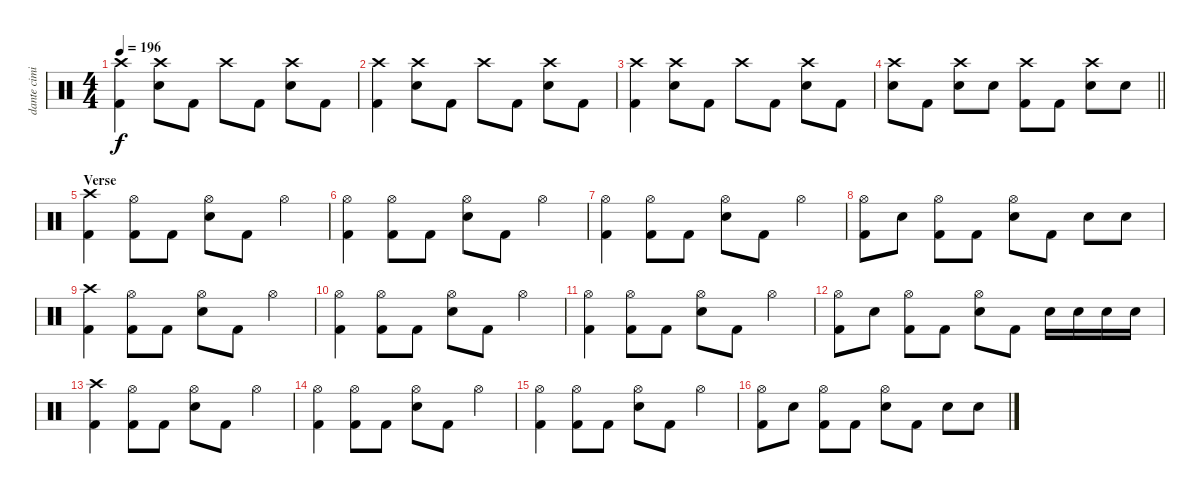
\track ("dante cimino" "dante cimi") {instrument percussion}
\staff {score}
\articulation defaults
\ts (4 4)
\tempo 196
\clef neutral
\ks c
("Crash high (hit)" "Kick (hit) 2").4{dy f} ("Crash high (hit)" "Electric Snare (hit)").8 "Kick (hit) 2".8 "Crash high (hit)".8 "Kick (hit) 2".8 ("Crash high (hit)" "Electric Snare (hit)").8 "Kick (hit) 2".8 |
("Crash high (hit)" "Kick (hit) 2").4 ("Crash high (hit)" "Electric Snare (hit)").8 "Kick (hit) 2".8 "Crash high (hit)".8 "Kick (hit) 2".8 ("Crash high (hit)" "Electric Snare (hit)").8 "Kick (hit) 2".8 |
("Crash high (hit)" "Kick (hit) 2").4 ("Crash high (hit)" "Electric Snare (hit)").8 "Kick (hit) 2".8 "Crash high (hit)".8 "Kick (hit) 2".8 ("Crash high (hit)" "Electric Snare (hit)").8 "Kick (hit) 2".8 |
\barLineRight lightlight
("Crash high (hit)" "Electric Snare (hit)").8 "Kick (hit) 2".8 ("Crash high (hit)" "Electric Snare (hit)").8 "Electric Snare (hit)".8 ("Crash high (hit)" "Kick (hit) 2").8 "Kick (hit) 2".8 ("Crash high (hit)" "Electric Snare (hit)").8 "Electric Snare (hit)".8 |
\section ("" "Verse")
("Crash high (hit)" "Kick (hit) 2").4 ("Hi-Hat (open)" "Kick (hit) 2").8 "Kick (hit) 2".8 ("Hi-Hat (open)" "Electric Snare (hit)").8 "Kick (hit) 2".8 "Hi-Hat (open)".4 |
("Hi-Hat (open)" "Kick (hit) 2").4 ("Hi-Hat (open)" "Kick (hit) 2").8 "Kick (hit) 2".8 ("Hi-Hat (open)" "Electric Snare (hit)").8 "Kick (hit) 2".8 "Hi-Hat (open)".4 |
("Hi-Hat (open)" "Kick (hit) 2").4 ("Hi-Hat (open)" "Kick (hit) 2").8 "Kick (hit) 2".8 ("Hi-Hat (open)" "Electric Snare (hit)").8 "Kick (hit) 2".8 "Hi-Hat (open)".4 |
("Hi-Hat (open)" "Kick (hit) 2").8 "Electric Snare (hit)".8 ("Hi-Hat (open)" "Kick (hit) 2").8 "Kick (hit) 2".8 ("Hi-Hat (open)" "Electric Snare (hit)").8 "Kick (hit) 2".8 "Electric Snare (hit)".8 "Electric Snare (hit)".8 |
("Crash high (hit)" "Kick (hit) 2").4 ("Hi-Hat (open)" "Kick (hit) 2").8 "Kick (hit) 2".8 ("Hi-Hat (open)" "Electric Snare (hit)").8 "Kick (hit) 2".8 "Hi-Hat (open)".4 |
("Hi-Hat (open)" "Kick (hit) 2").4 ("Hi-Hat (open)" "Kick (hit) 2").8 "Kick (hit) 2".8 ("Hi-Hat (open)" "Electric Snare (hit)").8 "Kick (hit) 2".8 "Hi-Hat (open)".4 |
("Hi-Hat (open)" "Kick (hit) 2").4 ("Hi-Hat (open)" "Kick (hit) 2").8 "Kick (hit) 2".8 ("Hi-Hat (open)" "Electric Snare (hit)").8 "Kick (hit) 2".8 "Hi-Hat (open)".4 |
("Hi-Hat (open)" "Kick (hit) 2").8 "Electric Snare (hit)".8 ("Hi-Hat (open)" "Kick (hit) 2").8 "Kick (hit) 2".8 ("Hi-Hat (open)" "Electric Snare (hit)").8 "Kick (hit) 2".8 "Electric Snare (hit)".16 "Electric Snare (hit)".16 "Electric Snare (hit)".16 "Electric Snare (hit)".16 |
("Crash high (hit)" "Kick (hit) 2").4 ("Hi-Hat (open)" "Kick (hit) 2").8 "Kick (hit) 2".8 ("Hi-Hat (open)" "Electric Snare (hit)").8 "Kick (hit) 2".8 "Hi-Hat (open)".4 |
("Hi-Hat (open)" "Kick (hit) 2").4 ("Hi-Hat (open)" "Kick (hit) 2").8 "Kick (hit) 2".8 ("Hi-Hat (open)" "Electric Snare (hit)").8 "Kick (hit) 2".8 "Hi-Hat (open)".4 |
("Hi-Hat (open)" "Kick (hit) 2").4 ("Hi-Hat (open)" "Kick (hit) 2").8 "Kick (hit) 2".8 ("Hi-Hat (open)" "Electric Snare (hit)").8 "Kick (hit) 2".8 "Hi-Hat (open)".4 |
("Hi-Hat (open)" "Kick (hit) 2").8 "Electric Snare (hit)".8 ("Hi-Hat (open)" "Kick (hit) 2").8 "Kick (hit) 2".8 ("Hi-Hat (open)" "Electric Snare (hit)").8 "Kick (hit) 2".8 "Electric Snare (hit)".8 "Electric Snare (hit)".8
